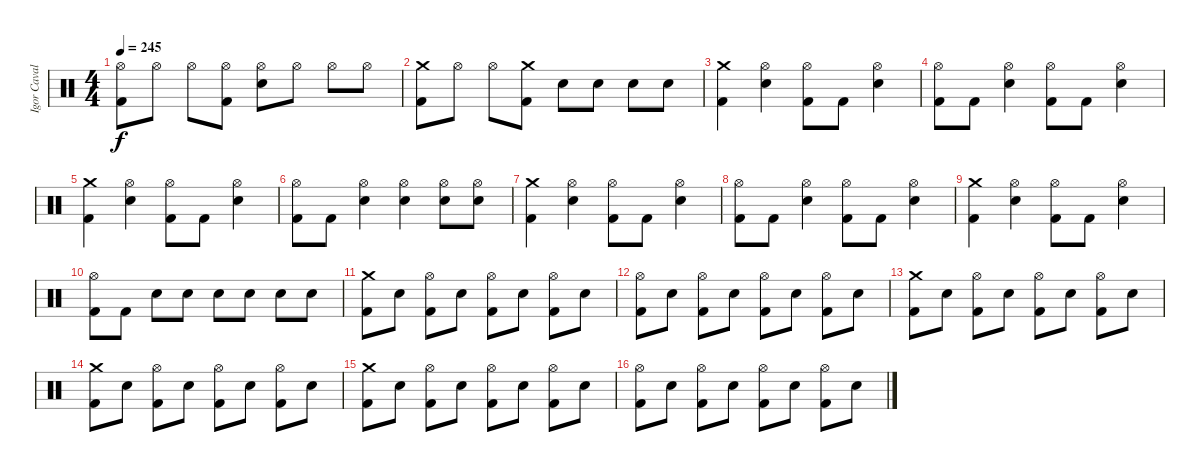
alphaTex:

\track ("Igor Cavalera" "Igor Caval") {instrument percussion}
\staff {score}
\articulation defaults
\ts (4 4)
\tempo 245
\clef neutral
\ks c
("Kick (hit) 2" "Hi-Hat (open)").8{dy f} "Hi-Hat (open)".8 "Hi-Hat (open)".8 ("Kick (hit) 2" "Hi-Hat (open)").8 ("Electric Snare (hit)" "Hi-Hat (open)").8 "Hi-Hat (open)".8 "Hi-Hat (open)".8 "Hi-Hat (open)".8 |
("Kick (hit) 2" "Crash medium (hit)").8 "Hi-Hat (open)".8 "Hi-Hat (open)".8 ("Kick (hit) 2" "Crash medium (hit)").8 "Electric Snare (hit)".8 "Electric Snare (hit)".8 "Electric Snare (hit)".8 "Electric Snare (hit)".8 |
("Crash medium (hit)" "Kick (hit) 2").4 ("Hi-Hat (open)" "Electric Snare (hit)").4 ("Hi-Hat (open)" "Kick (hit) 2").8 "Kick (hit) 2".8 ("Hi-Hat (open)" "Electric Snare (hit)").4 |
("Hi-Hat (open)" "Kick (hit) 2").8 "Kick (hit) 2".8 ("Hi-Hat (open)" "Electric Snare (hit)").4 ("Hi-Hat (open)" "Kick (hit) 2").8 "Kick (hit) 2".8 ("Hi-Hat (open)" "Electric Snare (hit)").4 |
("Crash medium (hit)" "Kick (hit) 2").4 ("Hi-Hat (open)" "Electric Snare (hit)").4 ("Hi-Hat (open)" "Kick (hit) 2").8 "Kick (hit) 2".8 ("Hi-Hat (open)" "Electric Snare (hit)").4 |
("Hi-Hat (open)" "Kick (hit) 2").8 "Kick (hit) 2".8 ("Hi-Hat (open)" "Electric Snare (hit)").4 ("Hi-Hat (open)" "Electric Snare (hit)").4 ("Hi-Hat (open)" "Electric Snare (hit)").8 ("Hi-Hat (open)" "Electric Snare (hit)").8 |
("Crash medium (hit)" "Kick (hit) 2").4 ("Hi-Hat (open)" "Electric Snare (hit)").4 ("Hi-Hat (open)" "Kick (hit) 2").8 "Kick (hit) 2".8 ("Hi-Hat (open)" "Electric Snare (hit)").4 |
("Hi-Hat (open)" "Kick (hit) 2").8 "Kick (hit) 2".8 ("Hi-Hat (open)" "Electric Snare (hit)").4 ("Hi-Hat (open)" "Kick (hit) 2").8 "Kick (hit) 2".8 ("Hi-Hat (open)" "Electric Snare (hit)").4 |
("Crash medium (hit)" "Kick (hit) 2").4 ("Hi-Hat (open)" "Electric Snare (hit)").4 ("Hi-Hat (open)" "Kick (hit) 2").8 "Kick (hit) 2".8 ("Hi-Hat (open)" "Electric Snare (hit)").4 |
("Hi-Hat (open)" "Kick (hit) 2").8 "Kick (hit) 2".8 "Electric Snare (hit)".8 "Electric Snare (hit)".8 "Electric Snare (hit)".8 "Electric Snare (hit)".8 "Electric Snare (hit)".8 "Electric Snare (hit)".8 |
("Crash medium (hit)" "Kick (hit) 2").8 "Electric Snare (hit)".8 ("Hi-Hat (open)" "Kick (hit) 2").8 "Electric Snare (hit)".8 ("Hi-Hat (open)" "Kick (hit) 2").8 "Electric Snare (hit)".8 ("Hi-Hat (open)" "Kick (hit) 2").8 "Electric Snare (hit)".8 |
("Hi-Hat (open)" "Kick (hit) 2").8 "Electric Snare (hit)".8 ("Hi-Hat (open)" "Kick (hit) 2").8 "Electric Snare (hit)".8 ("Hi-Hat (open)" "Kick (hit) 2").8 "Electric Snare (hit)".8 ("Hi-Hat (open)" "Kick (hit) 2").8 "Electric Snare (hit)".8 |
("Crash medium (hit)" "Kick (hit) 2").8 "Electric Snare (hit)".8 ("Hi-Hat (open)" "Kick (hit) 2").8 "Electric Snare (hit)".8 ("Hi-Hat (open)" "Kick (hit) 2").8 "Electric Snare (hit)".8 ("Hi-Hat (open)" "Kick (hit) 2").8 "Electric Snare (hit)".8 |
("Crash medium (hit)" "Kick (hit) 2").8 "Electric Snare (hit)".8 ("Hi-Hat (open)" "Kick (hit) 2").8 "Electric Snare (hit)".8 ("Hi-Hat (open)" "Kick (hit) 2").8 "Electric Snare (hit)".8 ("Hi-Hat (open)" "Kick (hit) 2").8 "Electric Snare (hit)".8 |
("Crash medium (hit)" "Kick (hit) 2").8 "Electric Snare (hit)".8 ("Hi-Hat (open)" "Kick (hit) 2").8 "Electric Snare (hit)".8 ("Hi-Hat (open)" "Kick (hit) 2").8 "Electric Snare (hit)".8 ("Hi-Hat (open)" "Kick (hit) 2").8 "Electric Snare (hit)".8 |
("Hi-Hat (open)" "Kick (hit) 2").8 "Electric Snare (hit)".8 ("Hi-Hat (open)" "Kick (hit) 2").8 "Electric Snare (hit)".8 ("Hi-Hat (open)" "Kick (hit) 2").8 "Electric Snare (hit)".8 ("Hi-Hat (open)" "Kick (hit) 2").8 "Electric Snare (hit)".8
